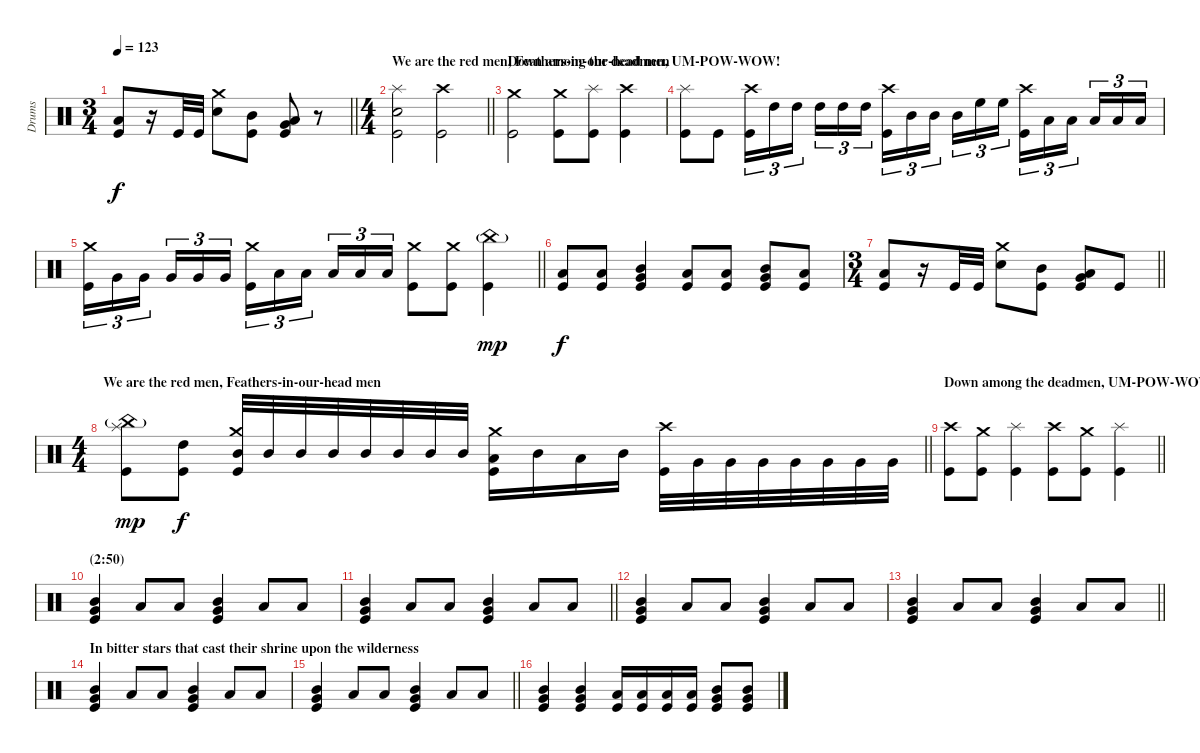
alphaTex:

\track ("Drums" "Drums") {instrument percussion}
\staff {score}
\articulation defaults
\ts (3 4)
\tempo 123
\clef neutral
\barLineRight lightlight
\ks c
("Low Tom (hit)" "Kick (hit)").8{dy f} r.16 "Kick (hit)".32 "Kick (hit)".32 ("Crash medium (hit)" "Snare (hit) 2").8 ("Mid Tom (hit)" "Kick (hit)").8 ("Low Tom (hit)" "Very Low Tom (hit)" "Kick (hit)").8 r.8 |
\ts (4 4)
\section ("" "We are the red men, Feathers-in-our-head men ")
\barLineRight lightlight
("Splash (hit)" "Snare (hit) 2" "Kick (hit)").2 ("Crash high (hit)" "Kick (hit)").2 |
\section ("" "Down among the deadmen, UM-POW-WOW! ")
("Crash medium (hit)" "Kick (hit)").2 ("Crash medium (hit)" "Kick (hit)").8 ("Splash (hit)" "Kick (hit)").8 ("Crash high (hit)" "Kick (hit)").4 |
("Splash (hit)" "Kick (hit)").8 "Kick (hit)".8 ("Crash high (hit)" "Kick (hit)").16{tu (3 2)} "High Tom (hit)".16{tu (3 2)} "High Tom (hit)".16{tu (3 2) beam splitsecondary} "High Tom (hit)".16{tu (3 2)} "High Tom (hit)".16{tu (3 2)} "High Tom (hit)".16{tu (3 2)} ("Crash high (hit)" "Kick (hit)").16{tu (3 2)} "Mid Tom (hit)".16{tu (3 2)} "Mid Tom (hit)".16{tu (3 2) beam splitsecondary} "Mid Tom (hit)".16{tu (3 2)} "High Floor Tom (hit)".16{tu (3 2)} "High Floor Tom (hit)".16{tu (3 2)} ("Crash high (hit)" "Kick (hit)").16{tu (3 2)} "Low Tom (hit)".16{tu (3 2)} "Low Tom (hit)".16{tu (3 2) beam splitsecondary} "Low Tom (hit)".16{tu (3 2)} "Low Tom (hit)".16{tu (3 2)} "Low Tom (hit)".16{tu (3 2)} |
\barLineRight lightlight
("Crash medium (hit)" "Kick (hit)").16{tu (3 2)} "Very Low Tom (hit)".16{tu (3 2)} "Very Low Tom (hit)".16{tu (3 2) beam splitsecondary} "Very Low Tom (hit)".16{tu (3 2)} "Very Low Tom (hit)".16{tu (3 2)} "Very Low Tom (hit)".16{tu (3 2)} ("Crash medium (hit)" "Kick (hit)").16{tu (3 2)} "Low Floor Tom (hit)".16{tu (3 2)} "Low Floor Tom (hit)".16{tu (3 2) beam splitsecondary} "Low Floor Tom (hit)".16{tu (3 2)} "Low Floor Tom (hit)".16{tu (3 2)} "Low Floor Tom (hit)".16{tu (3 2)} ("Crash medium (hit)" "Kick (hit)").8 ("Crash medium (hit)" "Kick (hit)").8 ("China (hit)"{g} "Kick (hit)").4{dy mp} |
("Low Tom (hit)" "Kick (hit)").8{dy f} ("Low Tom (hit)" "Kick (hit)").8 ("Mid Tom (hit)" "Very Low Tom (hit)" "Kick (hit)").4 ("Low Tom (hit)" "Kick (hit)").8 ("Low Tom (hit)" "Kick (hit)").8 ("Mid Tom (hit)" "Very Low Tom (hit)" "Kick (hit)").8 ("Low Tom (hit)" "Kick (hit)").8 |
\ts (3 4)
\barLineRight lightlight
("Low Tom (hit)" "Kick (hit)").8 r.16 "Kick (hit)".32 "Kick (hit)".32 ("Crash medium (hit)" "Snare (hit) 2").8 ("Mid Tom (hit)" "Kick (hit)").8 ("Low Tom (hit)" "Very Low Tom (hit)" "Kick (hit)").8 "Kick (hit)".8 |
\ts (4 4)
\section ("" "We are the red men, Feathers-in-our-head men ")
\barLineRight lightlight
("Splash (hit)" "China (hit)"{g} "Kick (hit)").8{dy mp} ("High Tom (hit)" "Kick (hit)").8{dy f} ("Crash medium (hit)" "Mid Tom (hit)" "Kick (hit)").32 "Mid Tom (hit)".32 "Mid Tom (hit)".32 "Mid Tom (hit)".32 "Mid Tom (hit)".32 "Mid Tom (hit)".32 "Mid Tom (hit)".32 "Mid Tom (hit)".32 ("Crash medium (hit)" "Low Tom (hit)" "Kick (hit)").16 "Mid Tom (hit)".16 "Low Tom (hit)".16 "Mid Tom (hit)".16 ("Crash high (hit)" "Kick (hit)").32 "Very Low Tom (hit)".32 "Very Low Tom (hit)".32 "Very Low Tom (hit)".32 "Very Low Tom (hit)".32 "Very Low Tom (hit)".32 "Very Low Tom (hit)".32 "Very Low Tom (hit)".32 |
\section ("" "Down among the deadmen, UM-POW-WOW! ")
\barLineRight lightlight
("Crash high (hit)" "Kick (hit)").8 ("Crash medium (hit)" "Kick (hit)").8 ("Splash (hit)" "Kick (hit)").4 ("Crash high (hit)" "Kick (hit)").8 ("Crash medium (hit)" "Kick (hit)").8 ("Splash (hit)" "Kick (hit)").4 |
\section ("" "(2:50)")
("Mid Tom (hit)" "Very Low Tom (hit)" "Kick (hit)").4 "Low Tom (hit)".8 "Low Tom (hit)".8 ("Mid Tom (hit)" "Very Low Tom (hit)" "Kick (hit)").4 "Low Tom (hit)".8 "Low Tom (hit)".8 |
\barLineRight lightlight
("Mid Tom (hit)" "Very Low Tom (hit)" "Kick (hit)").4 "Low Tom (hit)".8 "Low Tom (hit)".8 ("Mid Tom (hit)" "Very Low Tom (hit)" "Kick (hit)").4 "Low Tom (hit)".8 "Low Tom (hit)".8 |
("Mid Tom (hit)" "Very Low Tom (hit)" "Kick (hit)").4 "Low Tom (hit)".8 "Low Tom (hit)".8 ("Mid Tom (hit)" "Very Low Tom (hit)" "Kick (hit)").4 "Low Tom (hit)".8 "Low Tom (hit)".8 |
\barLineRight lightlight
("Mid Tom (hit)" "Very Low Tom (hit)" "Kick (hit)").4 "Low Tom (hit)".8 "Low Tom (hit)".8 ("Mid Tom (hit)" "Very Low Tom (hit)" "Kick (hit)").4 "Low Tom (hit)".8 "Low Tom (hit)".8 |
\section ("" "In bitter stars that cast their shrine upon the wilderness")
("Mid Tom (hit)" "Very Low Tom (hit)" "Kick (hit)").4 "Low Tom (hit)".8 "Low Tom (hit)".8 ("Mid Tom (hit)" "Very Low Tom (hit)" "Kick (hit)").4 "Low Tom (hit)".8 "Low Tom (hit)".8 |
\barLineRight lightlight
("Mid Tom (hit)" "Very Low Tom (hit)" "Kick (hit)").4 "Low Tom (hit)".8 "Low Tom (hit)".8 ("Mid Tom (hit)" "Very Low Tom (hit)" "Kick (hit)").4 "Low Tom (hit)".8 "Low Tom (hit)".8 |
("Mid Tom (hit)" "Very Low Tom (hit)" "Kick (hit)").4 ("Mid Tom (hit)" "Very Low Tom (hit)" "Kick (hit)").4 ("Low Tom (hit)" "Kick (hit)").16 ("Low Tom (hit)" "Kick (hit)").16 ("Low Tom (hit)" "Kick (hit)").16 ("Low Tom (hit)" "Kick (hit)").16 ("Mid Tom (hit)" "Very Low Tom (hit)" "Kick (hit)").8 ("Mid Tom (hit)" "Very Low Tom (hit)" "Kick (hit)").8
